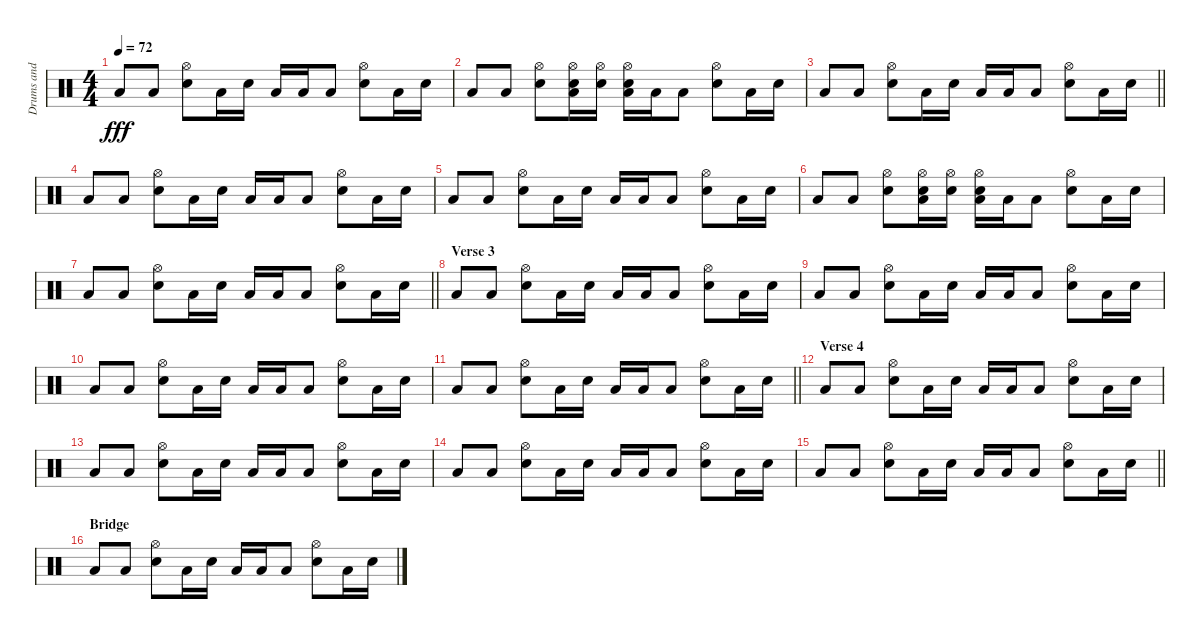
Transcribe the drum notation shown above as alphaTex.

\track ("Drums and Percussions" "Drums and ") {instrument percussion}
\staff {score}
\articulation defaults
\ts (4 4)
\tempo 72
\clef neutral
\ks c "Low Floor Tom (hit)".8{dy fff} "Low Floor Tom (hit)".8
("Hi-Hat (open)" "Snare (hit) 2").8 "Low Floor Tom (hit)".16 "Snare (hit) 2".16 "Low Floor Tom (hit)".16 "Low Floor Tom (hit)".16 "Low Floor Tom (hit)".8 ("Hi-Hat (open)" "Snare (hit) 2").8 "Low Floor Tom (hit)".16 "Snare (hit) 2".16 |
"Low Floor Tom (hit)".8 "Low Floor Tom (hit)".8 ("Hi-Hat (open)" "Snare (hit) 2").8 ("Hi-Hat (open)" "Snare (hit) 2" "Low Floor Tom (hit)").16 ("Hi-Hat (open)" "Snare (hit) 2").16 ("Hi-Hat (open)" "Snare (hit) 2" "Low Floor Tom (hit)").16 "Low Floor Tom (hit)".16 "Low Floor Tom (hit)".8 ("Hi-Hat (open)" "Snare (hit) 2").8 "Low Floor Tom (hit)".16 "Snare (hit) 2".16 |
\barLineRight lightlight "Low Floor Tom (hit)".8 "Low Floor Tom (hit)".8
("Hi-Hat (open)" "Snare (hit) 2").8 "Low Floor Tom (hit)".16 "Snare (hit) 2".16 "Low Floor Tom (hit)".16 "Low Floor Tom (hit)".16 "Low Floor Tom (hit)".8 ("Hi-Hat (open)" "Snare (hit) 2").8 "Low Floor Tom (hit)".16 "Snare (hit) 2".16 |
"Low Floor Tom (hit)".8 "Low Floor Tom (hit)".8 ("Hi-Hat (open)" "Snare (hit) 2").8 "Low Floor Tom (hit)".16 "Snare (hit) 2".16 "Low Floor Tom (hit)".16 "Low Floor Tom (hit)".16 "Low Floor Tom (hit)".8 ("Hi-Hat (open)" "Snare (hit) 2").8 "Low Floor Tom (hit)".16 "Snare (hit) 2".16 |
"Low Floor Tom (hit)".8 "Low Floor Tom (hit)".8 ("Hi-Hat (open)" "Snare (hit) 2").8 "Low Floor Tom (hit)".16 "Snare (hit) 2".16 "Low Floor Tom (hit)".16 "Low Floor Tom (hit)".16 "Low Floor Tom (hit)".8 ("Hi-Hat (open)" "Snare (hit) 2").8 "Low Floor Tom (hit)".16 "Snare (hit) 2".16 |
"Low Floor Tom (hit)".8 "Low Floor Tom (hit)".8 ("Hi-Hat (open)" "Snare (hit) 2").8 ("Hi-Hat (open)" "Snare (hit) 2" "Low Floor Tom (hit)").16 ("Hi-Hat (open)" "Snare (hit) 2").16 ("Hi-Hat (open)" "Snare (hit) 2" "Low Floor Tom (hit)").16 "Low Floor Tom (hit)".16 "Low Floor Tom (hit)".8 ("Hi-Hat (open)" "Snare (hit) 2").8 "Low Floor Tom (hit)".16 "Snare (hit) 2".16 |
\barLineRight lightlight "Low Floor Tom (hit)".8 "Low Floor Tom (hit)".8
("Hi-Hat (open)" "Snare (hit) 2").8 "Low Floor Tom (hit)".16 "Snare (hit) 2".16 "Low Floor Tom (hit)".16 "Low Floor Tom (hit)".16 "Low Floor Tom (hit)".8 ("Hi-Hat (open)" "Snare (hit) 2").8 "Low Floor Tom (hit)".16 "Snare (hit) 2".16 |
\section ("" "Verse 3")
"Low Floor Tom (hit)".8 "Low Floor Tom (hit)".8 ("Hi-Hat (open)" "Snare (hit) 2").8 "Low Floor Tom (hit)".16 "Snare (hit) 2".16 "Low Floor Tom (hit)".16 "Low Floor Tom (hit)".16 "Low Floor Tom (hit)".8 ("Hi-Hat (open)" "Snare (hit) 2").8 "Low Floor Tom (hit)".16 "Snare (hit) 2".16 |
"Low Floor Tom (hit)".8 "Low Floor Tom (hit)".8 ("Hi-Hat (open)" "Snare (hit) 2").8 "Low Floor Tom (hit)".16 "Snare (hit) 2".16 "Low Floor Tom (hit)".16 "Low Floor Tom (hit)".16 "Low Floor Tom (hit)".8 ("Hi-Hat (open)" "Snare (hit) 2").8 "Low Floor Tom (hit)".16 "Snare (hit) 2".16 |
"Low Floor Tom (hit)".8 "Low Floor Tom (hit)".8 ("Hi-Hat (open)" "Snare (hit) 2").8 "Low Floor Tom (hit)".16 "Snare (hit) 2".16 "Low Floor Tom (hit)".16 "Low Floor Tom (hit)".16 "Low Floor Tom (hit)".8 ("Hi-Hat (open)" "Snare (hit) 2").8 "Low Floor Tom (hit)".16 "Snare (hit) 2".16 |
\barLineRight lightlight "Low Floor Tom (hit)".8 "Low Floor Tom (hit)".8
("Hi-Hat (open)" "Snare (hit) 2").8 "Low Floor Tom (hit)".16 "Snare (hit) 2".16 "Low Floor Tom (hit)".16 "Low Floor Tom (hit)".16 "Low Floor Tom (hit)".8 ("Hi-Hat (open)" "Snare (hit) 2").8 "Low Floor Tom (hit)".16 "Snare (hit) 2".16 |
\section ("" "Verse 4")
"Low Floor Tom (hit)".8 "Low Floor Tom (hit)".8 ("Hi-Hat (open)" "Snare (hit) 2").8 "Low Floor Tom (hit)".16 "Snare (hit) 2".16 "Low Floor Tom (hit)".16 "Low Floor Tom (hit)".16 "Low Floor Tom (hit)".8 ("Hi-Hat (open)" "Snare (hit) 2").8 "Low Floor Tom (hit)".16 "Snare (hit) 2".16 |
"Low Floor Tom (hit)".8 "Low Floor Tom (hit)".8 ("Hi-Hat (open)" "Snare (hit) 2").8 "Low Floor Tom (hit)".16 "Snare (hit) 2".16 "Low Floor Tom (hit)".16 "Low Floor Tom (hit)".16 "Low Floor Tom (hit)".8 ("Hi-Hat (open)" "Snare (hit) 2").8 "Low Floor Tom (hit)".16 "Snare (hit) 2".16 |
"Low Floor Tom (hit)".8 "Low Floor Tom (hit)".8 ("Hi-Hat (open)" "Snare (hit) 2").8 "Low Floor Tom (hit)".16 "Snare (hit) 2".16 "Low Floor Tom (hit)".16 "Low Floor Tom (hit)".16 "Low Floor Tom (hit)".8 ("Hi-Hat (open)" "Snare (hit) 2").8 "Low Floor Tom (hit)".16 "Snare (hit) 2".16 |
\barLineRight lightlight "Low Floor Tom (hit)".8 "Low Floor Tom (hit)".8
("Hi-Hat (open)" "Snare (hit) 2").8 "Low Floor Tom (hit)".16 "Snare (hit) 2".16 "Low Floor Tom (hit)".16 "Low Floor Tom (hit)".16 "Low Floor Tom (hit)".8 ("Hi-Hat (open)" "Snare (hit) 2").8 "Low Floor Tom (hit)".16 "Snare (hit) 2".16 |
\section ("" "Bridge")
"Low Floor Tom (hit)".8 "Low Floor Tom (hit)".8 ("Hi-Hat (open)" "Snare (hit) 2").8 "Low Floor Tom (hit)".16 "Snare (hit) 2".16 "Low Floor Tom (hit)".16 "Low Floor Tom (hit)".16 "Low Floor Tom (hit)".8 ("Hi-Hat (open)" "Snare (hit) 2").8 "Low Floor Tom (hit)".16 "Snare (hit) 2".16
